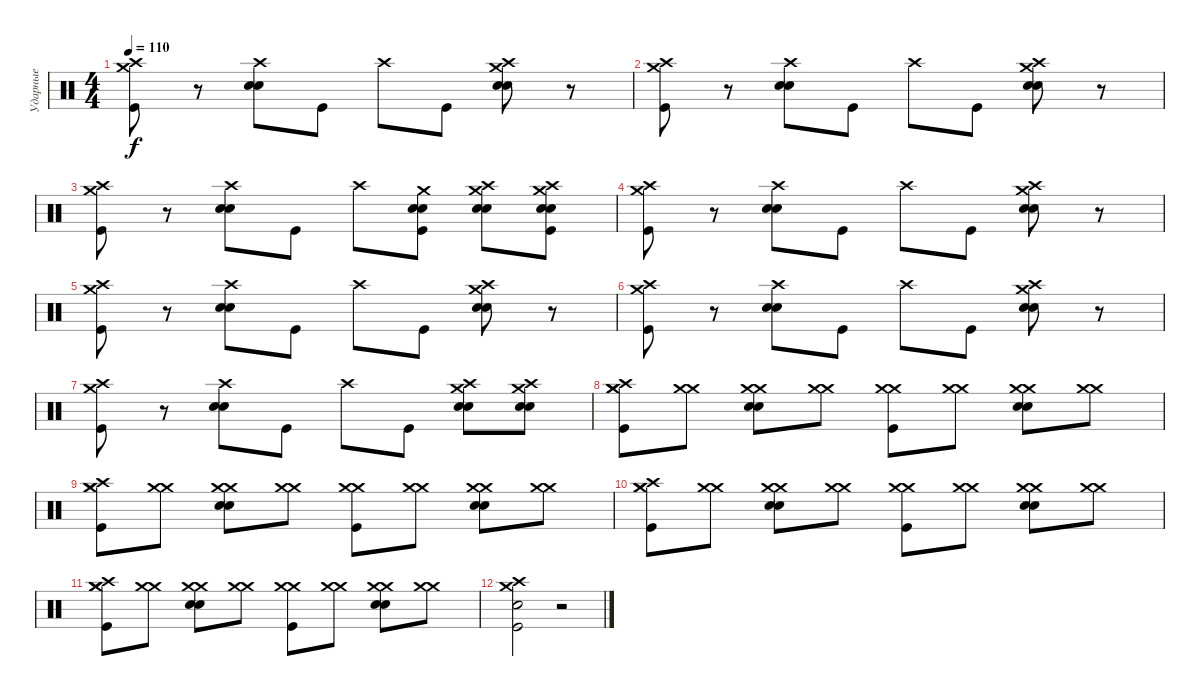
\track ("Ударные" "Ударные") {instrument percussion}
\staff {score}
\articulation defaults
\ts (4 4)
\tempo 110
\clef neutral
\ks c
("Crash high (hit)" "Crash medium (hit)" "Kick (hit)").8{dy f} r.8 ("Crash high (hit)" "Snare (hit) 2" "Snare (hit) 2").8 "Kick (hit)".8 "Crash high (hit)".8 "Kick (hit)".8 ("Crash high (hit)" "Crash medium (hit)" "Snare (hit) 2" "Snare (hit) 2").8 r.8 |
("Crash high (hit)" "Crash medium (hit)" "Kick (hit)").8 r.8 ("Crash high (hit)" "Snare (hit) 2" "Snare (hit) 2").8 "Kick (hit)".8 "Crash high (hit)".8 "Kick (hit)".8 ("Crash high (hit)" "Crash medium (hit)" "Snare (hit) 2" "Snare (hit) 2").8 r.8 |
("Crash high (hit)" "Crash medium (hit)" "Kick (hit)").8 r.8 ("Crash high (hit)" "Snare (hit) 2" "Snare (hit) 2").8 "Kick (hit)".8 "Crash high (hit)".8 ("Crash medium (hit)" "Electric Snare (hit)" "Electric Snare (hit)" "Kick (hit)").8 ("Crash high (hit)" "Crash medium (hit)" "Snare (hit) 2" "Snare (hit) 2").8 ("Crash high (hit)" "Crash medium (hit)" "Electric Snare (hit)" "Electric Snare (hit)" "Kick (hit)").8 |
("Crash high (hit)" "Crash medium (hit)" "Kick (hit)").8 r.8 ("Crash high (hit)" "Snare (hit) 2" "Snare (hit) 2").8 "Kick (hit)".8 "Crash high (hit)".8 "Kick (hit)".8 ("Crash high (hit)" "Crash medium (hit)" "Snare (hit) 2" "Snare (hit) 2").8 r.8 |
("Crash high (hit)" "Crash medium (hit)" "Kick (hit)").8 r.8 ("Crash high (hit)" "Snare (hit) 2" "Snare (hit) 2").8 "Kick (hit)".8 "Crash high (hit)".8 "Kick (hit)".8 ("Crash high (hit)" "Crash medium (hit)" "Snare (hit) 2" "Snare (hit) 2").8 r.8 |
("Crash high (hit)" "Crash medium (hit)" "Kick (hit)").8 r.8 ("Crash high (hit)" "Snare (hit) 2" "Snare (hit) 2").8 "Kick (hit)".8 "Crash high (hit)".8 "Kick (hit)".8 ("Crash high (hit)" "Crash medium (hit)" "Snare (hit) 2" "Snare (hit) 2").8 r.8 |
("Crash high (hit)" "Crash medium (hit)" "Kick (hit)").8 r.8 ("Crash high (hit)" "Snare (hit) 2" "Snare (hit) 2").8 "Kick (hit)".8 "Crash high (hit)".8 "Kick (hit)".8 ("Crash high (hit)" "Crash medium (hit)" "Snare (hit) 2" "Snare (hit) 2").8 ("Crash high (hit)" "Crash medium (hit)" "Snare (hit) 2" "Snare (hit) 2").8 |
("Crash medium (hit)" "Crash high (hit)" "Crash medium (hit)" "Kick (hit)").8 ("Crash medium (hit)" "Crash medium (hit)").8 ("Crash medium (hit)" "Crash medium (hit)" "Snare (hit) 2" "Snare (hit) 2").8 ("Crash medium (hit)" "Crash medium (hit)").8 ("Crash medium (hit)" "Crash medium (hit)" "Kick (hit)").8 ("Crash medium (hit)" "Crash medium (hit)").8 ("Crash medium (hit)" "Crash medium (hit)" "Snare (hit) 2" "Snare (hit) 2").8 ("Crash medium (hit)" "Crash medium (hit)").8 |
("Crash medium (hit)" "Crash high (hit)" "Crash medium (hit)" "Kick (hit)").8 ("Crash medium (hit)" "Crash medium (hit)").8 ("Crash medium (hit)" "Crash medium (hit)" "Snare (hit) 2" "Snare (hit) 2").8 ("Crash medium (hit)" "Crash medium (hit)").8 ("Crash medium (hit)" "Crash medium (hit)" "Kick (hit)").8 ("Crash medium (hit)" "Crash medium (hit)").8 ("Crash medium (hit)" "Crash medium (hit)" "Snare (hit) 2" "Snare (hit) 2").8 ("Crash medium (hit)" "Crash medium (hit)").8 |
("Crash medium (hit)" "Crash high (hit)" "Crash medium (hit)" "Kick (hit)").8 ("Crash medium (hit)" "Crash medium (hit)").8 ("Crash medium (hit)" "Crash medium (hit)" "Snare (hit) 2" "Snare (hit) 2").8 ("Crash medium (hit)" "Crash medium (hit)").8 ("Crash medium (hit)" "Crash medium (hit)" "Kick (hit)").8 ("Crash medium (hit)" "Crash medium (hit)").8 ("Crash medium (hit)" "Crash medium (hit)" "Snare (hit) 2" "Snare (hit) 2").8 ("Crash medium (hit)" "Crash medium (hit)").8 |
("Crash medium (hit)" "Crash high (hit)" "Crash medium (hit)" "Kick (hit)").8 ("Crash medium (hit)" "Crash medium (hit)").8 ("Crash medium (hit)" "Crash medium (hit)" "Snare (hit) 2" "Snare (hit) 2").8 ("Crash medium (hit)" "Crash medium (hit)").8 ("Crash medium (hit)" "Crash medium (hit)" "Kick (hit)").8 ("Crash medium (hit)" "Crash medium (hit)").8 ("Crash medium (hit)" "Crash medium (hit)" "Snare (hit) 2" "Snare (hit) 2").8 ("Crash medium (hit)" "Crash medium (hit)").8 |
("Crash medium (hit)" "Crash high (hit)" "Snare (hit) 2" "Kick (hit)").2 r.2
